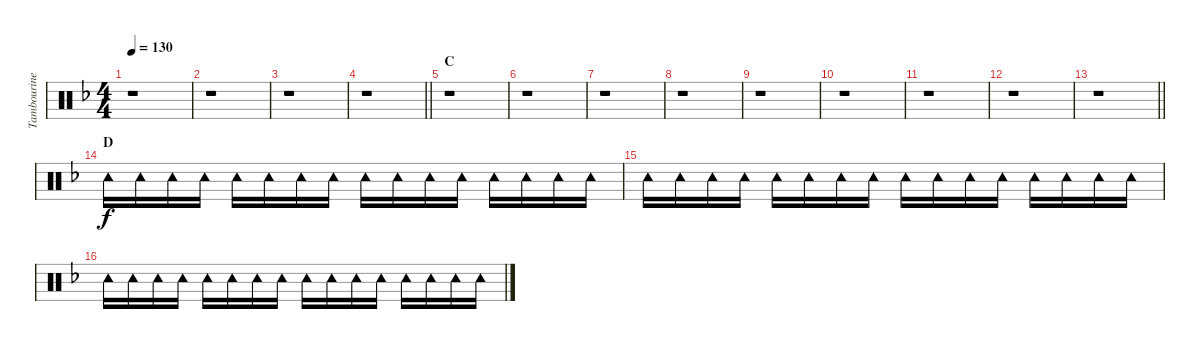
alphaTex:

\track ("Tambourine" "Tambourine") {instrument percussion}
\staff {score}
\articulation defaults
\ts (4 4)
\tempo 130
\clef neutral
\ks f
r.1{dy f} |
r.1 |
r.1 |
\barLineRight lightlight
r.1 |
\section ("" "C")
r.1 |
r.1 |
r.1 |
r.1 |
r.1 |
r.1 |
r.1 |
r.1 |
\barLineRight lightlight
r.1 |
\section ("" "D")
"Tambourine (hit)".16 "Tambourine (hit)".16 "Tambourine (hit)".16 "Tambourine (hit)".16 "Tambourine (hit)".16 "Tambourine (hit)".16 "Tambourine (hit)".16 "Tambourine (hit)".16 "Tambourine (hit)".16 "Tambourine (hit)".16 "Tambourine (hit)".16 "Tambourine (hit)".16 "Tambourine (hit)".16 "Tambourine (hit)".16 "Tambourine (hit)".16 "Tambourine (hit)".16 |
"Tambourine (hit)".16 "Tambourine (hit)".16 "Tambourine (hit)".16 "Tambourine (hit)".16 "Tambourine (hit)".16 "Tambourine (hit)".16 "Tambourine (hit)".16 "Tambourine (hit)".16 "Tambourine (hit)".16 "Tambourine (hit)".16 "Tambourine (hit)".16 "Tambourine (hit)".16 "Tambourine (hit)".16 "Tambourine (hit)".16 "Tambourine (hit)".16 "Tambourine (hit)".16 |
"Tambourine (hit)".16 "Tambourine (hit)".16 "Tambourine (hit)".16 "Tambourine (hit)".16 "Tambourine (hit)".16 "Tambourine (hit)".16 "Tambourine (hit)".16 "Tambourine (hit)".16 "Tambourine (hit)".16 "Tambourine (hit)".16 "Tambourine (hit)".16 "Tambourine (hit)".16 "Tambourine (hit)".16 "Tambourine (hit)".16 "Tambourine (hit)".16 "Tambourine (hit)".16
